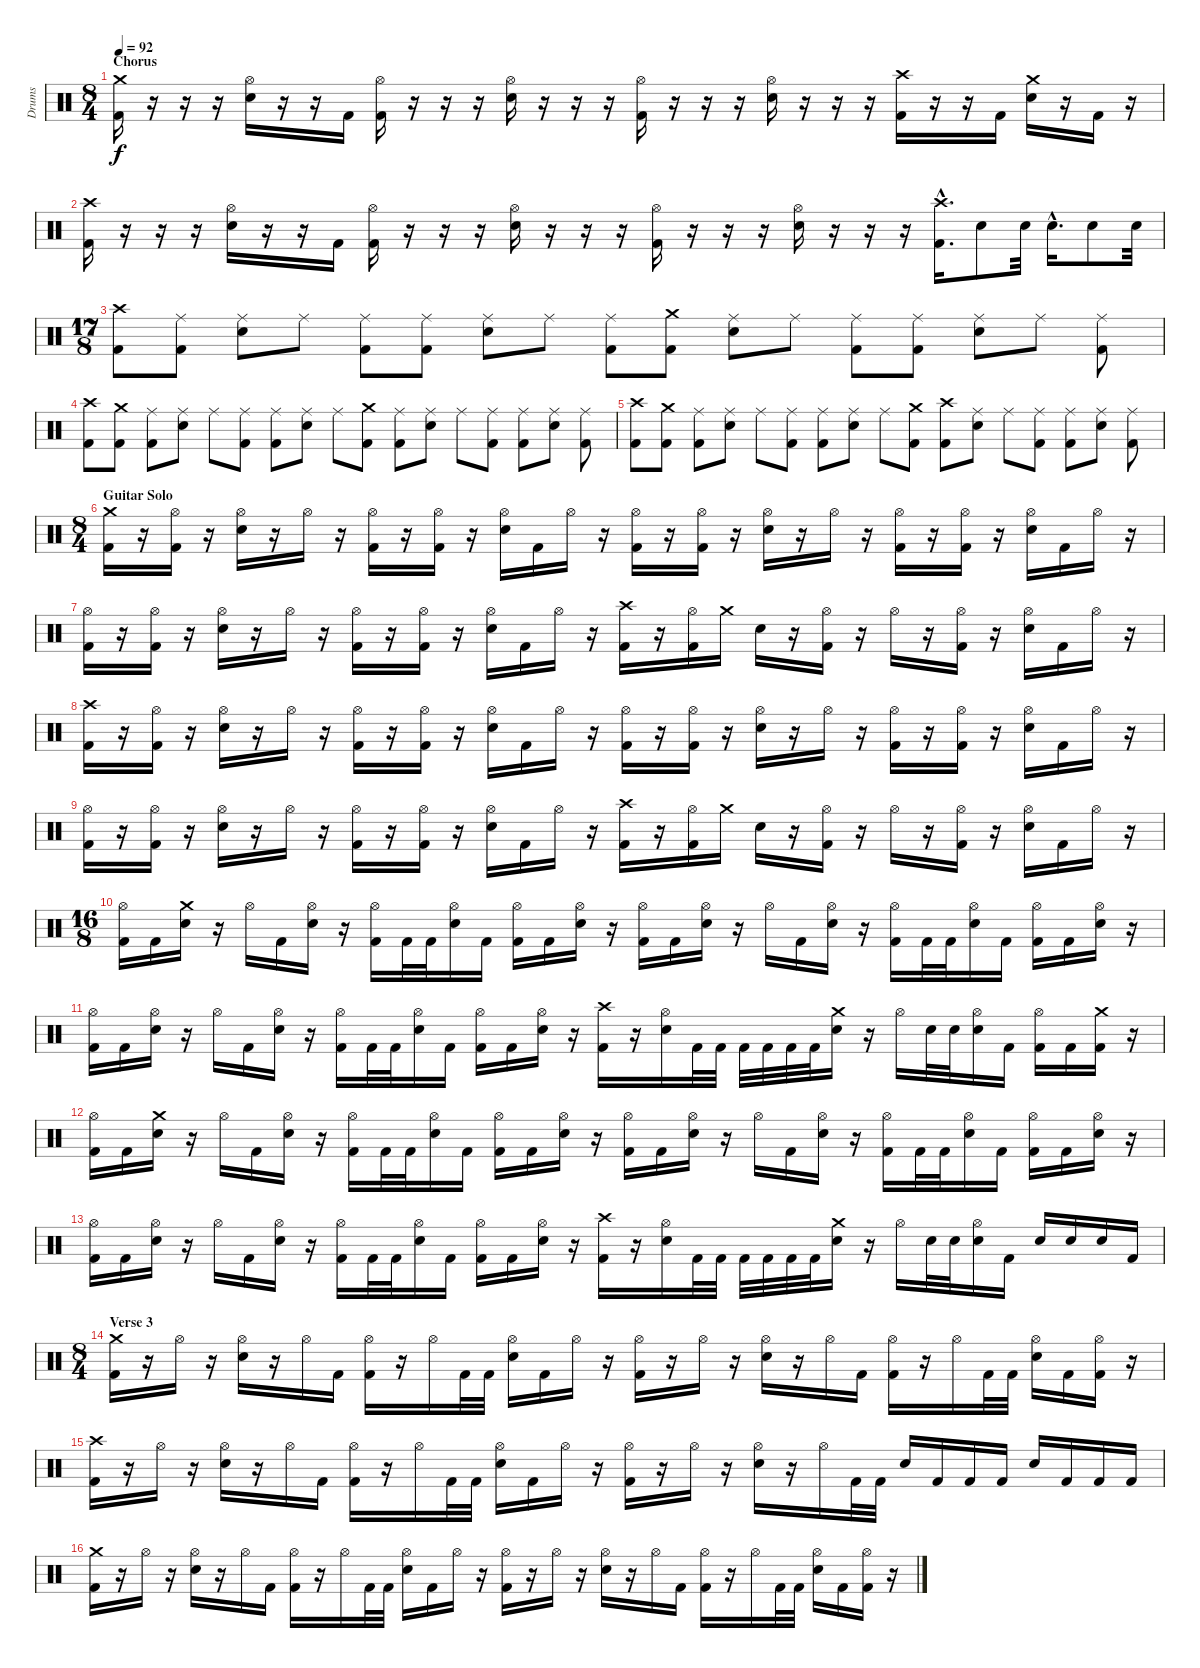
\track ("Drums" "Drums") {instrument percussion}
\staff {score}
\articulation defaults
\ts (8 4)
\section ("" "Chorus")
\tempo 92
\clef neutral
\ks c
("Crash medium (hit)" "Kick (hit) 2").16{dy f} r.16 r.16 r.16 ("Hi-Hat (open)" "Snare (hit) 2").16 r.16 r.16 "Kick (hit) 2".16 ("Hi-Hat (open)" "Kick (hit) 2").16 r.16 r.16 r.16 ("Hi-Hat (open)" "Snare (hit) 2").16 r.16 r.16 r.16 ("Hi-Hat (open)" "Kick (hit) 2").16 r.16 r.16 r.16 ("Hi-Hat (open)" "Snare (hit) 2").16 r.16 r.16 r.16 ("Crash high (hit)" "Kick (hit) 2").16 r.16 r.16 "Kick (hit) 2".16 ("Crash medium (hit)" "Snare (hit) 2").16 r.16 "Kick (hit) 2".16 r.16 |
("Crash high (hit)" "Kick (hit) 2").16 r.16 r.16 r.16 ("Hi-Hat (open)" "Snare (hit) 2").16 r.16 r.16 "Kick (hit) 2".16 ("Hi-Hat (open)" "Kick (hit) 2").16 r.16 r.16 r.16 ("Hi-Hat (open)" "Snare (hit) 2").16 r.16 r.16 r.16 ("Hi-Hat (open)" "Kick (hit) 2").16 r.16 r.16 r.16 ("Hi-Hat (open)" "Snare (hit) 2").16 r.16 r.16 r.16 ("Crash high (hit)"{hac} "Kick (hit) 2"{hac}).16{d} "Snare (hit) 2".8 "Snare (hit) 2".32 "Snare (hit) 2"{hac}.16{d} "Snare (hit) 2".8 "Snare (hit) 2".32 |
\ts (17 8)
("Crash high (hit)" "Kick (hit) 2").8 ("Ride (middle)" "Kick (hit) 2").8 ("Ride (middle)" "Snare (hit) 2").8 "Ride (middle)".8 ("Ride (middle)" "Kick (hit) 2").8 ("Ride (middle)" "Kick (hit) 2").8 ("Ride (middle)" "Snare (hit) 2").8 "Ride (middle)".8 ("Ride (middle)" "Kick (hit) 2").8 ("Crash medium (hit)" "Kick (hit) 2").8 ("Ride (middle)" "Snare (hit) 2").8 "Ride (middle)".8 ("Ride (middle)" "Kick (hit) 2").8 ("Ride (middle)" "Kick (hit) 2").8 ("Ride (middle)" "Snare (hit) 2").8 "Ride (middle)".8 ("Ride (middle)" "Kick (hit) 2").8 |
("Crash high (hit)" "Kick (hit) 2").8 ("Crash medium (hit)" "Kick (hit) 2").8 ("Ride (middle)" "Kick (hit) 2").8 ("Ride (middle)" "Snare (hit) 2").8 "Ride (middle)".8 ("Ride (middle)" "Kick (hit) 2").8 ("Ride (middle)" "Kick (hit) 2").8 ("Ride (middle)" "Snare (hit) 2").8 "Ride (middle)".8 ("Crash medium (hit)" "Kick (hit) 2").8 ("Ride (middle)" "Kick (hit) 2").8 ("Ride (middle)" "Snare (hit) 2").8 "Ride (middle)".8 ("Ride (middle)" "Kick (hit) 2").8 ("Ride (middle)" "Kick (hit) 2").8 ("Ride (middle)" "Snare (hit) 2").8 ("Ride (middle)" "Kick (hit) 2").8 |
("Crash high (hit)" "Kick (hit) 2").8 ("Crash medium (hit)" "Kick (hit) 2").8 ("Ride (middle)" "Kick (hit) 2").8 ("Ride (middle)" "Snare (hit) 2").8 "Ride (middle)".8 ("Ride (middle)" "Kick (hit) 2").8 ("Ride (middle)" "Kick (hit) 2").8 ("Ride (middle)" "Snare (hit) 2").8 "Ride (middle)".8 ("Crash medium (hit)" "Kick (hit) 2").8 ("Crash high (hit)" "Kick (hit) 2").8 ("Ride (middle)" "Snare (hit) 2").8 "Ride (middle)".8 ("Ride (middle)" "Kick (hit) 2").8 ("Ride (middle)" "Kick (hit) 2").8 ("Ride (middle)" "Snare (hit) 2").8 ("Ride (middle)" "Kick (hit) 2").8 |
\ts (8 4)
\section ("" "Guitar Solo")
("Crash medium (hit)" "Kick (hit) 2").16 r.16 ("Hi-Hat (open)" "Kick (hit) 2").16 r.16 ("Hi-Hat (open)" "Snare (hit) 2").16 r.16 "Hi-Hat (open)".16 r.16 ("Hi-Hat (open)" "Kick (hit) 2").16 r.16 ("Hi-Hat (open)" "Kick (hit) 2").16 r.16 ("Hi-Hat (open)" "Snare (hit) 2").16 "Kick (hit) 2".16 "Hi-Hat (open)".16 r.16 ("Hi-Hat (open)" "Kick (hit) 2").16 r.16 ("Hi-Hat (open)" "Kick (hit) 2").16 r.16 ("Hi-Hat (open)" "Snare (hit) 2").16 r.16 "Hi-Hat (open)".16 r.16 ("Hi-Hat (open)" "Kick (hit) 2").16 r.16 ("Hi-Hat (open)" "Kick (hit) 2").16 r.16 ("Hi-Hat (open)" "Snare (hit) 2").16 "Kick (hit) 2".16 "Hi-Hat (open)".16 r.16 |
("Hi-Hat (open)" "Kick (hit) 2").16 r.16 ("Hi-Hat (open)" "Kick (hit) 2").16 r.16 ("Hi-Hat (open)" "Snare (hit) 2").16 r.16 "Hi-Hat (open)".16 r.16 ("Hi-Hat (open)" "Kick (hit) 2").16 r.16 ("Hi-Hat (open)" "Kick (hit) 2").16 r.16 ("Hi-Hat (open)" "Snare (hit) 2").16 "Kick (hit) 2".16 "Hi-Hat (open)".16 r.16 ("Crash high (hit)" "Kick (hit) 2").16 r.16 ("Hi-Hat (open)" "Kick (hit) 2").16 "Crash medium (hit)".16 "Snare (hit) 2".16 r.16 ("Hi-Hat (open)" "Kick (hit) 2").16 r.16 "Hi-Hat (open)".16 r.16 ("Hi-Hat (open)" "Kick (hit) 2").16 r.16 ("Hi-Hat (open)" "Snare (hit) 2").16 "Kick (hit) 2".16 "Hi-Hat (open)".16 r.16 |
("Crash high (hit)" "Kick (hit) 2").16 r.16 ("Hi-Hat (open)" "Kick (hit) 2").16 r.16 ("Hi-Hat (open)" "Snare (hit) 2").16 r.16 "Hi-Hat (open)".16 r.16 ("Hi-Hat (open)" "Kick (hit) 2").16 r.16 ("Hi-Hat (open)" "Kick (hit) 2").16 r.16 ("Hi-Hat (open)" "Snare (hit) 2").16 "Kick (hit) 2".16 "Hi-Hat (open)".16 r.16 ("Hi-Hat (open)" "Kick (hit) 2").16 r.16 ("Hi-Hat (open)" "Kick (hit) 2").16 r.16 ("Hi-Hat (open)" "Snare (hit) 2").16 r.16 "Hi-Hat (open)".16 r.16 ("Hi-Hat (open)" "Kick (hit) 2").16 r.16 ("Hi-Hat (open)" "Kick (hit) 2").16 r.16 ("Hi-Hat (open)" "Snare (hit) 2").16 "Kick (hit) 2".16 "Hi-Hat (open)".16 r.16 |
("Hi-Hat (open)" "Kick (hit) 2").16 r.16 ("Hi-Hat (open)" "Kick (hit) 2").16 r.16 ("Hi-Hat (open)" "Snare (hit) 2").16 r.16 "Hi-Hat (open)".16 r.16 ("Hi-Hat (open)" "Kick (hit) 2").16 r.16 ("Hi-Hat (open)" "Kick (hit) 2").16 r.16 ("Hi-Hat (open)" "Snare (hit) 2").16 "Kick (hit) 2".16 "Hi-Hat (open)".16 r.16 ("Crash high (hit)" "Kick (hit) 2").16 r.16 ("Hi-Hat (open)" "Kick (hit) 2").16 "Crash medium (hit)".16 "Snare (hit) 2".16 r.16 ("Hi-Hat (open)" "Kick (hit) 2").16 r.16 "Hi-Hat (open)".16 r.16 ("Hi-Hat (open)" "Kick (hit) 2").16 r.16 ("Hi-Hat (open)" "Snare (hit) 2").16 "Kick (hit) 2".16 "Hi-Hat (open)".16 r.16 |
\ts (16 8)
("Hi-Hat (open)" "Kick (hit) 2").16 "Kick (hit) 2".16 ("Crash medium (hit)" "Snare (hit) 2").16 r.16 "Hi-Hat (open)".16 "Kick (hit) 2".16 ("Hi-Hat (open)" "Snare (hit) 2").16 r.16 ("Hi-Hat (open)" "Kick (hit) 2").16 "Kick (hit) 2".32 "Kick (hit) 2".32 ("Hi-Hat (open)" "Snare (hit) 2").16 "Kick (hit) 2".16 ("Hi-Hat (open)" "Kick (hit) 2").16 "Kick (hit) 2".16 ("Hi-Hat (open)" "Snare (hit) 2").16 r.16 ("Hi-Hat (open)" "Kick (hit) 2").16 "Kick (hit) 2".16 ("Hi-Hat (open)" "Snare (hit) 2").16 r.16 "Hi-Hat (open)".16 "Kick (hit) 2".16 ("Hi-Hat (open)" "Snare (hit) 2").16 r.16 ("Hi-Hat (open)" "Kick (hit) 2").16 "Kick (hit) 2".32 "Kick (hit) 2".32 ("Hi-Hat (open)" "Snare (hit) 2").16 "Kick (hit) 2".16 ("Hi-Hat (open)" "Kick (hit) 2").16 "Kick (hit) 2".16 ("Hi-Hat (open)" "Snare (hit) 2").16 r.16 |
("Hi-Hat (open)" "Kick (hit) 2").16 "Kick (hit) 2".16 ("Hi-Hat (open)" "Snare (hit) 2").16 r.16 "Hi-Hat (open)".16 "Kick (hit) 2".16 ("Hi-Hat (open)" "Snare (hit) 2").16 r.16 ("Hi-Hat (open)" "Kick (hit) 2").16 "Kick (hit) 2".32 "Kick (hit) 2".32 ("Hi-Hat (open)" "Snare (hit) 2").16 "Kick (hit) 2".16 ("Hi-Hat (open)" "Kick (hit) 2").16 "Kick (hit) 2".16 ("Hi-Hat (open)" "Snare (hit) 2").16 r.16 ("Crash high (hit)" "Kick (hit) 2").16 r.16 ("Hi-Hat (open)" "Snare (hit) 2").16 "Kick (hit) 2".32 "Kick (hit) 2".32 "Kick (hit) 2".32 "Kick (hit) 2".32 "Kick (hit) 2".32 "Kick (hit) 2".32 ("Crash medium (hit)" "Snare (hit) 2").16 r.16 "Hi-Hat (open)".16 "Snare (hit) 2".32 "Snare (hit) 2".32 ("Hi-Hat (open)" "Snare (hit) 2").16 "Kick (hit) 2".16 ("Hi-Hat (open)" "Kick (hit) 2").16 "Kick (hit) 2".16 ("Crash medium (hit)" "Kick (hit) 2").16 r.16 |
("Hi-Hat (open)" "Kick (hit) 2").16 "Kick (hit) 2".16 ("Crash medium (hit)" "Snare (hit) 2").16 r.16 "Hi-Hat (open)".16 "Kick (hit) 2".16 ("Hi-Hat (open)" "Snare (hit) 2").16 r.16 ("Hi-Hat (open)" "Kick (hit) 2").16 "Kick (hit) 2".32 "Kick (hit) 2".32 ("Hi-Hat (open)" "Snare (hit) 2").16 "Kick (hit) 2".16 ("Hi-Hat (open)" "Kick (hit) 2").16 "Kick (hit) 2".16 ("Hi-Hat (open)" "Snare (hit) 2").16 r.16 ("Hi-Hat (open)" "Kick (hit) 2").16 "Kick (hit) 2".16 ("Hi-Hat (open)" "Snare (hit) 2").16 r.16 "Hi-Hat (open)".16 "Kick (hit) 2".16 ("Hi-Hat (open)" "Snare (hit) 2").16 r.16 ("Hi-Hat (open)" "Kick (hit) 2").16 "Kick (hit) 2".32 "Kick (hit) 2".32 ("Hi-Hat (open)" "Snare (hit) 2").16 "Kick (hit) 2".16 ("Hi-Hat (open)" "Kick (hit) 2").16 "Kick (hit) 2".16 ("Hi-Hat (open)" "Snare (hit) 2").16 r.16 |
("Hi-Hat (open)" "Kick (hit) 2").16 "Kick (hit) 2".16 ("Hi-Hat (open)" "Snare (hit) 2").16 r.16 "Hi-Hat (open)".16 "Kick (hit) 2".16 ("Hi-Hat (open)" "Snare (hit) 2").16 r.16 ("Hi-Hat (open)" "Kick (hit) 2").16 "Kick (hit) 2".32 "Kick (hit) 2".32 ("Hi-Hat (open)" "Snare (hit) 2").16 "Kick (hit) 2".16 ("Hi-Hat (open)" "Kick (hit) 2").16 "Kick (hit) 2".16 ("Hi-Hat (open)" "Snare (hit) 2").16 r.16 ("Crash high (hit)" "Kick (hit) 2").16 r.16 ("Hi-Hat (open)" "Snare (hit) 2").16 "Kick (hit) 2".32 "Kick (hit) 2".32 "Kick (hit) 2".32 "Kick (hit) 2".32 "Kick (hit) 2".32 "Kick (hit) 2".32 ("Crash medium (hit)" "Snare (hit) 2").16 r.16 "Hi-Hat (open)".16 "Snare (hit) 2".32 "Snare (hit) 2".32 ("Hi-Hat (open)" "Snare (hit) 2").16 "Kick (hit) 2".16 "Snare (hit) 2".16 "Snare (hit) 2".16 "Snare (hit) 2".16 "Kick (hit) 2".16 |
\ts (8 4)
\section ("" "Verse 3")
("Crash medium (hit)" "Kick (hit) 2").16 r.16 "Hi-Hat (open)".16 r.16 ("Hi-Hat (open)" "Snare (hit) 2").16 r.16 "Hi-Hat (open)".16 "Kick (hit) 2".16 ("Hi-Hat (open)" "Kick (hit) 2").16 r.16 "Hi-Hat (open)".16 "Kick (hit) 2".32 "Kick (hit) 2".32 ("Hi-Hat (open)" "Snare (hit) 2").16 "Kick (hit) 2".16 "Hi-Hat (open)".16 r.16 ("Hi-Hat (open)" "Kick (hit) 2").16 r.16 "Hi-Hat (open)".16 r.16 ("Hi-Hat (open)" "Snare (hit) 2").16 r.16 "Hi-Hat (open)".16 "Kick (hit) 2".16 ("Hi-Hat (open)" "Kick (hit) 2").16 r.16 "Hi-Hat (open)".16 "Kick (hit) 2".32 "Kick (hit) 2".32 ("Hi-Hat (open)" "Snare (hit) 2").16 "Kick (hit) 2".16 ("Hi-Hat (open)" "Kick (hit) 2").16 r.16 |
("Crash high (hit)" "Kick (hit) 2").16 r.16 "Hi-Hat (open)".16 r.16 ("Hi-Hat (open)" "Snare (hit) 2").16 r.16 "Hi-Hat (open)".16 "Kick (hit) 2".16 ("Hi-Hat (open)" "Kick (hit) 2").16 r.16 "Hi-Hat (open)".16 "Kick (hit) 2".32 "Kick (hit) 2".32 ("Hi-Hat (open)" "Snare (hit) 2").16 "Kick (hit) 2".16 "Hi-Hat (open)".16 r.16 ("Hi-Hat (open)" "Kick (hit) 2").16 r.16 "Hi-Hat (open)".16 r.16 ("Hi-Hat (open)" "Snare (hit) 2").16 r.16 "Hi-Hat (open)".16 "Kick (hit) 2".32 "Kick (hit) 2".32 "Snare (hit) 2".16 "Kick (hit) 2".16 "Kick (hit) 2".16 "Kick (hit) 2".16 "Snare (hit) 2".16 "Kick (hit) 2".16 "Kick (hit) 2".16 "Kick (hit) 2".16 |
("Crash medium (hit)" "Kick (hit) 2").16 r.16 "Hi-Hat (open)".16 r.16 ("Hi-Hat (open)" "Snare (hit) 2").16 r.16 "Hi-Hat (open)".16 "Kick (hit) 2".16 ("Hi-Hat (open)" "Kick (hit) 2").16 r.16 "Hi-Hat (open)".16 "Kick (hit) 2".32 "Kick (hit) 2".32 ("Hi-Hat (open)" "Snare (hit) 2").16 "Kick (hit) 2".16 "Hi-Hat (open)".16 r.16 ("Hi-Hat (open)" "Kick (hit) 2").16 r.16 "Hi-Hat (open)".16 r.16 ("Hi-Hat (open)" "Snare (hit) 2").16 r.16 "Hi-Hat (open)".16 "Kick (hit) 2".16 ("Hi-Hat (open)" "Kick (hit) 2").16 r.16 "Hi-Hat (open)".16 "Kick (hit) 2".32 "Kick (hit) 2".32 ("Hi-Hat (open)" "Snare (hit) 2").16 "Kick (hit) 2".16 ("Hi-Hat (open)" "Kick (hit) 2").16 r.16
